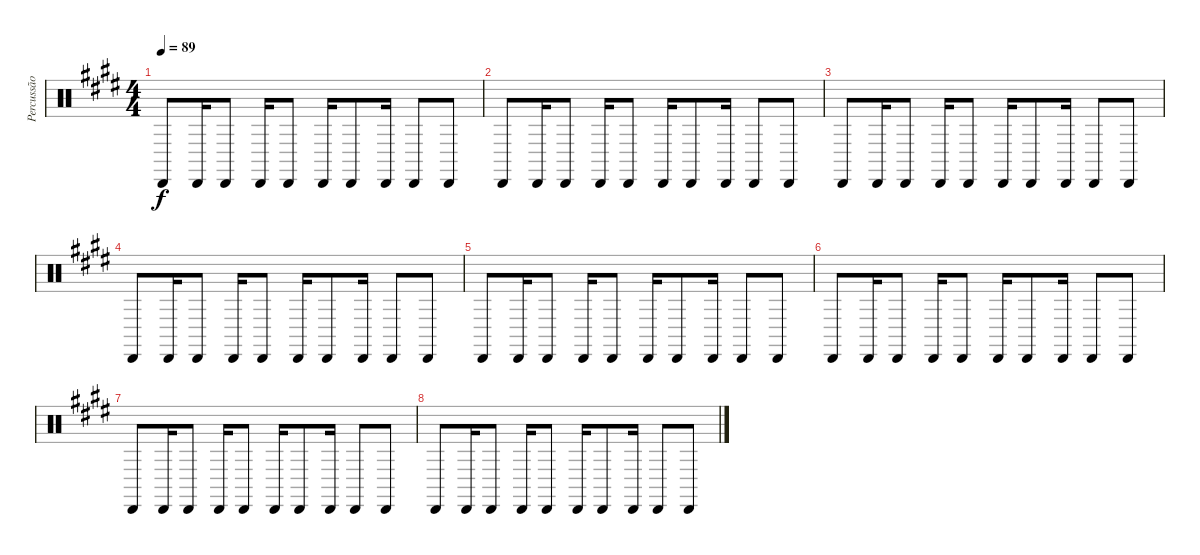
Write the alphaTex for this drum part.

\track ("Percussão" "Percussão") {instrument percussion}
\staff {score}
\articulation defaults
\ts (4 4)
\tempo 89
\clef neutral
\ks e "Cabasa (hit)".8{dy f} "Cabasa (hit)".16 "Cabasa (hit)".8 "Cabasa (hit)".16 "Cabasa (hit)".8 "Cabasa (hit)".16 "Cabasa (hit)".8 "Cabasa (hit)".16 "Cabasa (hit)".8 "Cabasa (hit)".8
|
"Cabasa (hit)".8 "Cabasa (hit)".16 "Cabasa (hit)".8 "Cabasa (hit)".16 "Cabasa (hit)".8 "Cabasa (hit)".16 "Cabasa (hit)".8 "Cabasa (hit)".16 "Cabasa (hit)".8 "Cabasa (hit)".8 |
"Cabasa (hit)".8 "Cabasa (hit)".16 "Cabasa (hit)".8 "Cabasa (hit)".16 "Cabasa (hit)".8 "Cabasa (hit)".16 "Cabasa (hit)".8 "Cabasa (hit)".16 "Cabasa (hit)".8 "Cabasa (hit)".8 |
"Cabasa (hit)".8 "Cabasa (hit)".16 "Cabasa (hit)".8 "Cabasa (hit)".16 "Cabasa (hit)".8 "Cabasa (hit)".16 "Cabasa (hit)".8 "Cabasa (hit)".16 "Cabasa (hit)".8 "Cabasa (hit)".8 |
"Cabasa (hit)".8 "Cabasa (hit)".16 "Cabasa (hit)".8 "Cabasa (hit)".16 "Cabasa (hit)".8 "Cabasa (hit)".16 "Cabasa (hit)".8 "Cabasa (hit)".16 "Cabasa (hit)".8 "Cabasa (hit)".8 |
"Cabasa (hit)".8 "Cabasa (hit)".16 "Cabasa (hit)".8 "Cabasa (hit)".16 "Cabasa (hit)".8 "Cabasa (hit)".16 "Cabasa (hit)".8 "Cabasa (hit)".16 "Cabasa (hit)".8 "Cabasa (hit)".8 |
"Cabasa (hit)".8 "Cabasa (hit)".16 "Cabasa (hit)".8 "Cabasa (hit)".16 "Cabasa (hit)".8 "Cabasa (hit)".16 "Cabasa (hit)".8 "Cabasa (hit)".16 "Cabasa (hit)".8 "Cabasa (hit)".8 |
"Cabasa (hit)".8 "Cabasa (hit)".16 "Cabasa (hit)".8 "Cabasa (hit)".16 "Cabasa (hit)".8 "Cabasa (hit)".16 "Cabasa (hit)".8 "Cabasa (hit)".16 "Cabasa (hit)".8 "Cabasa (hit)".8
